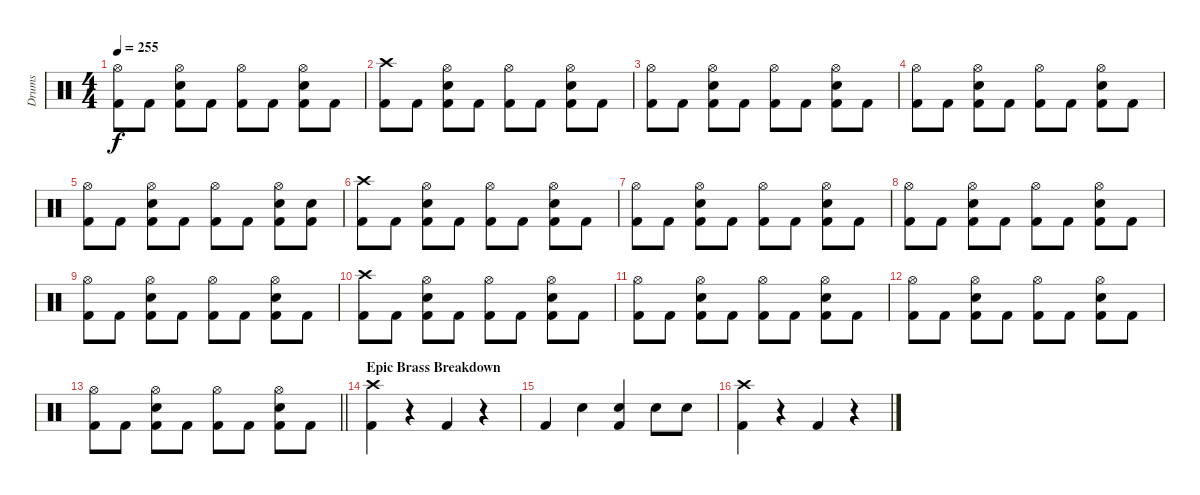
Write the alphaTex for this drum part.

\track ("Drums" "Drums") {instrument percussion}
\staff {score}
\articulation defaults
\ts (4 4)
\tempo 255
\clef neutral
\ks c
("Hi-Hat (open)" "Kick (hit) 2").8{dy f} "Kick (hit) 2".8 ("Hi-Hat (open)" "Snare (hit) 2" "Kick (hit) 2").8 "Kick (hit) 2".8 ("Hi-Hat (open)" "Kick (hit) 2").8 "Kick (hit) 2".8 ("Hi-Hat (open)" "Snare (hit) 2" "Kick (hit) 2").8 "Kick (hit) 2".8 |
("Crash high (hit)" "Kick (hit) 2").8 "Kick (hit) 2".8 ("Hi-Hat (open)" "Snare (hit) 2" "Kick (hit) 2").8 "Kick (hit) 2".8 ("Hi-Hat (open)" "Kick (hit) 2").8 "Kick (hit) 2".8 ("Hi-Hat (open)" "Snare (hit) 2" "Kick (hit) 2").8 "Kick (hit) 2".8 |
("Hi-Hat (open)" "Kick (hit) 2").8 "Kick (hit) 2".8 ("Hi-Hat (open)" "Snare (hit) 2" "Kick (hit) 2").8 "Kick (hit) 2".8 ("Hi-Hat (open)" "Kick (hit) 2").8 "Kick (hit) 2".8 ("Hi-Hat (open)" "Snare (hit) 2" "Kick (hit) 2").8 "Kick (hit) 2".8 |
("Hi-Hat (open)" "Kick (hit) 2").8 "Kick (hit) 2".8 ("Hi-Hat (open)" "Snare (hit) 2" "Kick (hit) 2").8 "Kick (hit) 2".8 ("Hi-Hat (open)" "Kick (hit) 2").8 "Kick (hit) 2".8 ("Hi-Hat (open)" "Snare (hit) 2" "Kick (hit) 2").8 "Kick (hit) 2".8 |
("Hi-Hat (open)" "Kick (hit) 2").8 "Kick (hit) 2".8 ("Hi-Hat (open)" "Snare (hit) 2" "Kick (hit) 2").8 "Kick (hit) 2".8 ("Hi-Hat (open)" "Kick (hit) 2").8 "Kick (hit) 2".8 ("Hi-Hat (open)" "Snare (hit) 2" "Kick (hit) 2").8 ("Snare (hit) 2" "Kick (hit) 2").8 |
("Crash high (hit)" "Kick (hit) 2").8 "Kick (hit) 2".8 ("Hi-Hat (open)" "Snare (hit) 2" "Kick (hit) 2").8 "Kick (hit) 2".8 ("Hi-Hat (open)" "Kick (hit) 2").8 "Kick (hit) 2".8 ("Hi-Hat (open)" "Snare (hit) 2" "Kick (hit) 2").8 "Kick (hit) 2".8 |
("Hi-Hat (open)" "Kick (hit) 2").8 "Kick (hit) 2".8 ("Hi-Hat (open)" "Snare (hit) 2" "Kick (hit) 2").8 "Kick (hit) 2".8 ("Hi-Hat (open)" "Kick (hit) 2").8 "Kick (hit) 2".8 ("Hi-Hat (open)" "Snare (hit) 2" "Kick (hit) 2").8 "Kick (hit) 2".8 |
("Hi-Hat (open)" "Kick (hit) 2").8 "Kick (hit) 2".8 ("Hi-Hat (open)" "Snare (hit) 2" "Kick (hit) 2").8 "Kick (hit) 2".8 ("Hi-Hat (open)" "Kick (hit) 2").8 "Kick (hit) 2".8 ("Hi-Hat (open)" "Snare (hit) 2" "Kick (hit) 2").8 "Kick (hit) 2".8 |
("Hi-Hat (open)" "Kick (hit) 2").8 "Kick (hit) 2".8 ("Hi-Hat (open)" "Snare (hit) 2" "Kick (hit) 2").8 "Kick (hit) 2".8 ("Hi-Hat (open)" "Kick (hit) 2").8 "Kick (hit) 2".8 ("Hi-Hat (open)" "Snare (hit) 2" "Kick (hit) 2").8 "Kick (hit) 2".8 |
("Crash high (hit)" "Kick (hit) 2").8 "Kick (hit) 2".8 ("Hi-Hat (open)" "Snare (hit) 2" "Kick (hit) 2").8 "Kick (hit) 2".8 ("Hi-Hat (open)" "Kick (hit) 2").8 "Kick (hit) 2".8 ("Hi-Hat (open)" "Snare (hit) 2" "Kick (hit) 2").8 "Kick (hit) 2".8 |
("Hi-Hat (open)" "Kick (hit) 2").8 "Kick (hit) 2".8 ("Hi-Hat (open)" "Snare (hit) 2" "Kick (hit) 2").8 "Kick (hit) 2".8 ("Hi-Hat (open)" "Kick (hit) 2").8 "Kick (hit) 2".8 ("Hi-Hat (open)" "Snare (hit) 2" "Kick (hit) 2").8 "Kick (hit) 2".8 |
("Hi-Hat (open)" "Kick (hit) 2").8 "Kick (hit) 2".8 ("Hi-Hat (open)" "Snare (hit) 2" "Kick (hit) 2").8 "Kick (hit) 2".8 ("Hi-Hat (open)" "Kick (hit) 2").8 "Kick (hit) 2".8 ("Hi-Hat (open)" "Snare (hit) 2" "Kick (hit) 2").8 "Kick (hit) 2".8 |
\barLineRight lightlight
("Hi-Hat (open)" "Kick (hit) 2").8 "Kick (hit) 2".8 ("Hi-Hat (open)" "Snare (hit) 2" "Kick (hit) 2").8 "Kick (hit) 2".8 ("Hi-Hat (open)" "Kick (hit) 2").8 "Kick (hit) 2".8 ("Hi-Hat (open)" "Snare (hit) 2" "Kick (hit) 2").8 "Kick (hit) 2".8 |
\section ("" "Epic Brass Breakdown")
("Crash high (hit)" "Kick (hit) 2").4 r.4 "Kick (hit) 2".4 r.4 |
"Kick (hit) 2".4 "Snare (hit) 2".4 ("Snare (hit) 2" "Kick (hit) 2").4 "Snare (hit) 2".8 "Snare (hit) 2".8 |
("Crash high (hit)" "Kick (hit) 2").4 r.4 "Kick (hit) 2".4 r.4
